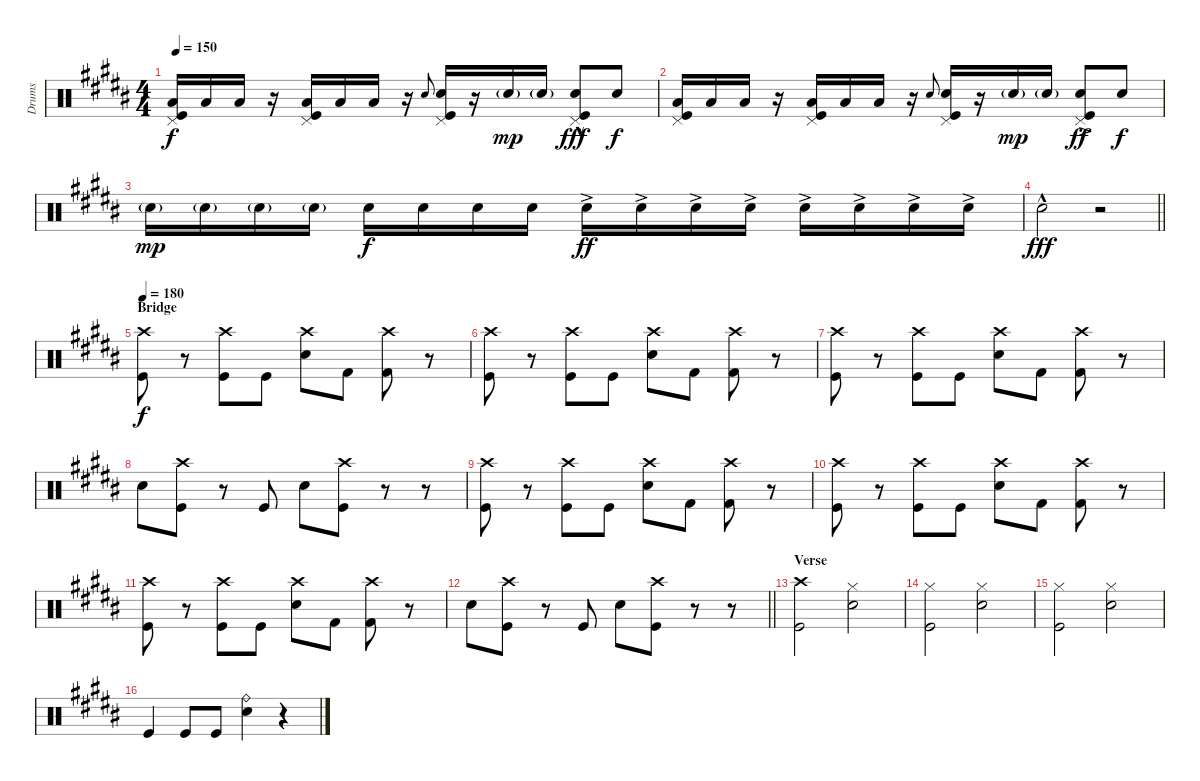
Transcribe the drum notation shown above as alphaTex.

\track ("Drums" "Drums") {instrument percussion}
\staff {score}
\articulation defaults
\ts (4 4)
\tempo 150
\clef neutral
\ks b
("Low Floor Tom (hit)" "Kick (hit)" "Pedal Hi-Hat (hit)").16{dy f} "Low Floor Tom (hit)".16 "Low Floor Tom (hit)".16 r.16 ("Low Floor Tom (hit)" "Kick (hit)" "Pedal Hi-Hat (hit)").16 "Low Floor Tom (hit)".16 "Low Floor Tom (hit)".16 r.16 "Snare (hit) 2".8{gr onbeat} ("Snare (hit) 2" "Kick (hit)" "Pedal Hi-Hat (hit)").16 r.16 "Snare (hit) 2"{g}.16{dy mp} "Snare (hit) 2"{g}.16 ("Snare (hit) 2"{hac} "Kick (hit)" "Pedal Hi-Hat (hit)").8{dy fff} "Snare (hit) 2".8{dy f} |
("Low Floor Tom (hit)" "Kick (hit)" "Pedal Hi-Hat (hit)").16 "Low Floor Tom (hit)".16 "Low Floor Tom (hit)".16 r.16 ("Low Floor Tom (hit)" "Kick (hit)" "Pedal Hi-Hat (hit)").16 "Low Floor Tom (hit)".16 "Low Floor Tom (hit)".16 r.16 "Snare (hit) 2".8{gr onbeat} ("Snare (hit) 2" "Kick (hit)" "Pedal Hi-Hat (hit)").16 r.16 "Snare (hit) 2"{g}.16{dy mp} "Snare (hit) 2"{g}.16 ("Snare (hit) 2"{ac} "Kick (hit)" "Pedal Hi-Hat (hit)").8{dy ff} "Snare (hit) 2".8{dy f} |
"Snare (hit) 2"{g}.16{dy mp} "Snare (hit) 2"{g}.16 "Snare (hit) 2"{g}.16 "Snare (hit) 2"{g}.16 "Snare (hit) 2".16{dy f} "Snare (hit) 2".16 "Snare (hit) 2".16 "Snare (hit) 2".16 "Snare (hit) 2"{ac}.16{dy ff} "Snare (hit) 2"{ac}.16 "Snare (hit) 2"{ac}.16 "Snare (hit) 2"{ac}.16 "Snare (hit) 2"{ac}.16 "Snare (hit) 2"{ac}.16 "Snare (hit) 2"{ac}.16 "Snare (hit) 2"{ac}.16 |
\barLineRight lightlight "Snare (hit) 2"{hac}.2{dy fff}
r.2 |
\section ("" "Bridge")
\tempo 180
("Crash high (hit)" "Kick (hit)").8{dy f} r.8 ("Crash high (hit)" "Kick (hit)").8 "Kick (hit)".8 ("Crash high (hit)" "Snare (hit) 2").8 "Kick (hit) 2".8 ("Crash high (hit)" "Kick (hit) 2").8 r.8 |
("Crash high (hit)" "Kick (hit)").8 r.8 ("Crash high (hit)" "Kick (hit)").8 "Kick (hit)".8 ("Crash high (hit)" "Snare (hit) 2").8 "Kick (hit) 2".8 ("Crash high (hit)" "Kick (hit) 2").8 r.8 |
("Crash high (hit)" "Kick (hit)").8 r.8 ("Crash high (hit)" "Kick (hit)").8 "Kick (hit)".8 ("Crash high (hit)" "Snare (hit) 2").8 "Kick (hit) 2".8 ("Crash high (hit)" "Kick (hit) 2").8 r.8 |
"Snare (hit) 2".8 ("Crash high (hit)" "Kick (hit)").8 r.8 "Kick (hit)".8 "Snare (hit) 2".8 ("Crash high (hit)" "Kick (hit)").8 r.8 r.8 |
("Crash high (hit)" "Kick (hit)").8 r.8 ("Crash high (hit)" "Kick (hit)").8 "Kick (hit)".8 ("Crash high (hit)" "Snare (hit) 2").8 "Kick (hit) 2".8 ("Crash high (hit)" "Kick (hit) 2").8 r.8 |
("Crash high (hit)" "Kick (hit)").8 r.8 ("Crash high (hit)" "Kick (hit)").8 "Kick (hit)".8 ("Crash high (hit)" "Snare (hit) 2").8 "Kick (hit) 2".8 ("Crash high (hit)" "Kick (hit) 2").8 r.8 |
("Crash high (hit)" "Kick (hit)").8 r.8 ("Crash high (hit)" "Kick (hit)").8 "Kick (hit)".8 ("Crash high (hit)" "Snare (hit) 2").8 "Kick (hit) 2".8 ("Crash high (hit)" "Kick (hit) 2").8 r.8 |
\barLineRight lightlight "Snare (hit) 2".8
("Crash high (hit)" "Kick (hit)").8 r.8 "Kick (hit)".8 "Snare (hit) 2".8 ("Crash high (hit)" "Kick (hit)").8 r.8 r.8 |
\section ("" "Verse")
("Crash high (hit)" "Kick (hit)").2 ("Hi-Hat (closed)" "Snare (hit) 2").2 |
("Hi-Hat (closed)" "Kick (hit)").2 ("Hi-Hat (closed)" "Snare (hit) 2").2 |
("Hi-Hat (closed)" "Kick (hit)").2 ("Hi-Hat (closed)" "Snare (hit) 2").2 |
"Kick (hit)".4 "Kick (hit)".8 "Kick (hit)".8 ("Ride (bell)" "Snare (hit) 2").4 r.4
